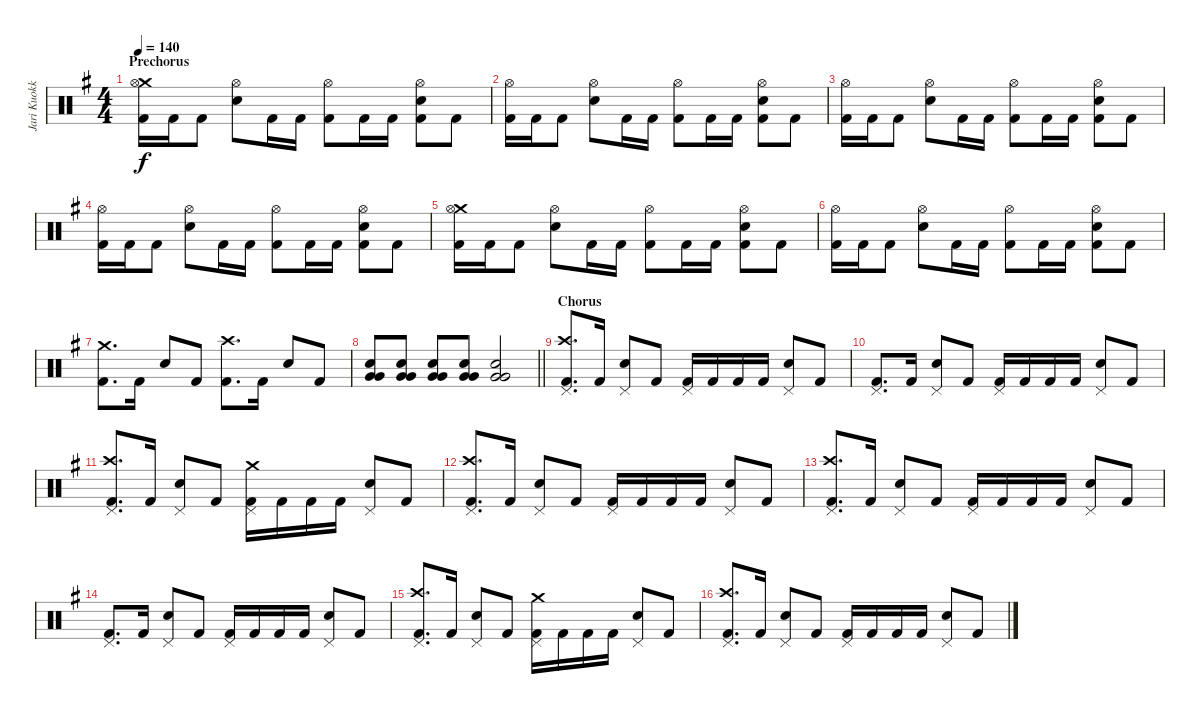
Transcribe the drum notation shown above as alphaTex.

\track ("Jari Kuokkanen" "Jari Kuokk") {instrument percussion}
\staff {score}
\articulation defaults
\ts (4 4)
\section ("" "Prechorus")
\tempo 140
\clef neutral
\ks eminor
("Crash medium (hit)" "Hi-Hat (open)" "Kick (hit) 2").16{dy f} "Kick (hit) 2".16 "Kick (hit) 2".8 ("Hi-Hat (open)" "Snare (hit) 2").8 "Kick (hit) 2".16 "Kick (hit) 2".16 ("Hi-Hat (open)" "Kick (hit) 2").8 "Kick (hit) 2".16 "Kick (hit) 2".16 ("Hi-Hat (open)" "Snare (hit) 2" "Kick (hit) 2").8 "Kick (hit) 2".8 |
("Hi-Hat (open)" "Kick (hit) 2").16 "Kick (hit) 2".16 "Kick (hit) 2".8 ("Hi-Hat (open)" "Snare (hit) 2").8 "Kick (hit) 2".16 "Kick (hit) 2".16 ("Hi-Hat (open)" "Kick (hit) 2").8 "Kick (hit) 2".16 "Kick (hit) 2".16 ("Hi-Hat (open)" "Snare (hit) 2" "Kick (hit) 2").8 "Kick (hit) 2".8 |
("Hi-Hat (open)" "Kick (hit) 2").16 "Kick (hit) 2".16 "Kick (hit) 2".8 ("Hi-Hat (open)" "Snare (hit) 2").8 "Kick (hit) 2".16 "Kick (hit) 2".16 ("Hi-Hat (open)" "Kick (hit) 2").8 "Kick (hit) 2".16 "Kick (hit) 2".16 ("Hi-Hat (open)" "Snare (hit) 2" "Kick (hit) 2").8 "Kick (hit) 2".8 |
("Hi-Hat (open)" "Kick (hit) 2").16 "Kick (hit) 2".16 "Kick (hit) 2".8 ("Hi-Hat (open)" "Snare (hit) 2").8 "Kick (hit) 2".16 "Kick (hit) 2".16 ("Hi-Hat (open)" "Kick (hit) 2").8 "Kick (hit) 2".16 "Kick (hit) 2".16 ("Hi-Hat (open)" "Snare (hit) 2" "Kick (hit) 2").8 "Kick (hit) 2".8 |
("Crash medium (hit)" "Hi-Hat (open)" "Kick (hit) 2").16 "Kick (hit) 2".16 "Kick (hit) 2".8 ("Hi-Hat (open)" "Snare (hit) 2").8 "Kick (hit) 2".16 "Kick (hit) 2".16 ("Hi-Hat (open)" "Kick (hit) 2").8 "Kick (hit) 2".16 "Kick (hit) 2".16 ("Hi-Hat (open)" "Snare (hit) 2" "Kick (hit) 2").8 "Kick (hit) 2".8 |
("Hi-Hat (open)" "Kick (hit) 2").16 "Kick (hit) 2".16 "Kick (hit) 2".8 ("Hi-Hat (open)" "Snare (hit) 2").8 "Kick (hit) 2".16 "Kick (hit) 2".16 ("Hi-Hat (open)" "Kick (hit) 2").8 "Kick (hit) 2".16 "Kick (hit) 2".16 ("Hi-Hat (open)" "Snare (hit) 2" "Kick (hit) 2").8 "Kick (hit) 2".8 |
("Crash medium (hit)" "Kick (hit) 2").8{d} "Kick (hit) 2".16 "Snare (hit) 2".8 "Kick (hit) 2".8 ("Crash high (hit)" "Kick (hit) 2").8{d} "Kick (hit) 2".16 "Snare (hit) 2".8 "Kick (hit) 2".8 |
\barLineRight lightlight
("Snare (hit) 2" "Very Low Tom (hit)" "Very Low Tom (hit)").8 ("Snare (hit) 2" "Very Low Tom (hit)" "Very Low Tom (hit)").8 ("Snare (hit) 2" "Very Low Tom (hit)" "Very Low Tom (hit)").8 ("Snare (hit) 2" "Very Low Tom (hit)" "Very Low Tom (hit)").8 ("Snare (hit) 2" "Very Low Tom (hit)" "Very Low Tom (hit)").2 |
\section ("" "Chorus")
("Pedal Hi-Hat (hit)" "Crash high (hit)" "Kick (hit) 2").8{d} "Kick (hit) 2".16 ("Pedal Hi-Hat (hit)" "Snare (hit) 2").8 "Kick (hit) 2".8 ("Pedal Hi-Hat (hit)" "Kick (hit) 2").16 "Kick (hit) 2".16 "Kick (hit) 2".16 "Kick (hit) 2".16 ("Pedal Hi-Hat (hit)" "Snare (hit) 2").8 "Kick (hit) 2".8 |
("Pedal Hi-Hat (hit)" "Kick (hit) 2").8{d} "Kick (hit) 2".16 ("Pedal Hi-Hat (hit)" "Snare (hit) 2").8 "Kick (hit) 2".8 ("Pedal Hi-Hat (hit)" "Kick (hit) 2").16 "Kick (hit) 2".16 "Kick (hit) 2".16 "Kick (hit) 2".16 ("Pedal Hi-Hat (hit)" "Snare (hit) 2").8 "Kick (hit) 2".8 |
("Crash high (hit)" "Pedal Hi-Hat (hit)" "Kick (hit) 2").8{d} "Kick (hit) 2".16 ("Pedal Hi-Hat (hit)" "Snare (hit) 2").8 "Kick (hit) 2".8 ("Crash medium (hit)" "Pedal Hi-Hat (hit)" "Kick (hit) 2").16 "Kick (hit) 2".16 "Kick (hit) 2".16 "Kick (hit) 2".16 ("Pedal Hi-Hat (hit)" "Snare (hit) 2").8 "Kick (hit) 2".8 |
("Crash high (hit)" "Pedal Hi-Hat (hit)" "Kick (hit) 2").8{d} "Kick (hit) 2".16 ("Pedal Hi-Hat (hit)" "Snare (hit) 2").8 "Kick (hit) 2".8 ("Pedal Hi-Hat (hit)" "Kick (hit) 2").16 "Kick (hit) 2".16 "Kick (hit) 2".16 "Kick (hit) 2".16 ("Pedal Hi-Hat (hit)" "Snare (hit) 2").8 "Kick (hit) 2".8 |
("Pedal Hi-Hat (hit)" "Crash high (hit)" "Kick (hit) 2").8{d} "Kick (hit) 2".16 ("Pedal Hi-Hat (hit)" "Snare (hit) 2").8 "Kick (hit) 2".8 ("Pedal Hi-Hat (hit)" "Kick (hit) 2").16 "Kick (hit) 2".16 "Kick (hit) 2".16 "Kick (hit) 2".16 ("Pedal Hi-Hat (hit)" "Snare (hit) 2").8 "Kick (hit) 2".8 |
("Pedal Hi-Hat (hit)" "Kick (hit) 2").8{d} "Kick (hit) 2".16 ("Pedal Hi-Hat (hit)" "Snare (hit) 2").8 "Kick (hit) 2".8 ("Pedal Hi-Hat (hit)" "Kick (hit) 2").16 "Kick (hit) 2".16 "Kick (hit) 2".16 "Kick (hit) 2".16 ("Pedal Hi-Hat (hit)" "Snare (hit) 2").8 "Kick (hit) 2".8 |
("Crash high (hit)" "Pedal Hi-Hat (hit)" "Kick (hit) 2").8{d} "Kick (hit) 2".16 ("Pedal Hi-Hat (hit)" "Snare (hit) 2").8 "Kick (hit) 2".8 ("Crash medium (hit)" "Pedal Hi-Hat (hit)" "Kick (hit) 2").16 "Kick (hit) 2".16 "Kick (hit) 2".16 "Kick (hit) 2".16 ("Pedal Hi-Hat (hit)" "Snare (hit) 2").8 "Kick (hit) 2".8 |
("Crash high (hit)" "Pedal Hi-Hat (hit)" "Kick (hit) 2").8{d} "Kick (hit) 2".16 ("Pedal Hi-Hat (hit)" "Snare (hit) 2").8 "Kick (hit) 2".8 ("Pedal Hi-Hat (hit)" "Kick (hit) 2").16 "Kick (hit) 2".16 "Kick (hit) 2".16 "Kick (hit) 2".16 ("Pedal Hi-Hat (hit)" "Snare (hit) 2").8 "Kick (hit) 2".8
